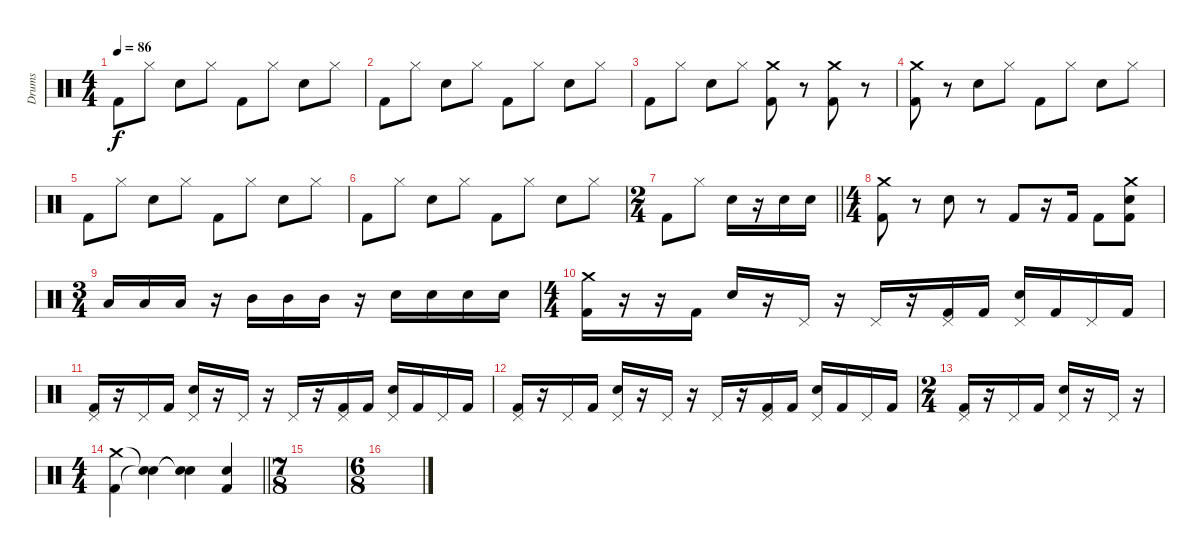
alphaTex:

\track ("Drums" "Drums") {instrument percussion}
\staff {score}
\articulation defaults
\ts (4 4)
\tempo 86
\clef neutral
\ks c "Kick (hit) 2".8{dy f} "Hi-Hat (closed)".8 "Snare (hit) 2".8 "Hi-Hat (closed)".8 "Kick (hit) 2".8 "Hi-Hat (closed)".8 "Snare (hit) 2".8 "Hi-Hat (closed)".8
|
"Kick (hit) 2".8 "Hi-Hat (closed)".8 "Snare (hit) 2".8 "Hi-Hat (closed)".8 "Kick (hit) 2".8 "Hi-Hat (closed)".8 "Snare (hit) 2".8 "Hi-Hat (closed)".8 |
"Kick (hit) 2".8 "Hi-Hat (closed)".8 "Snare (hit) 2".8 "Hi-Hat (closed)".8 ("Crash medium (hit)" "Kick (hit) 2").8 r.8 ("Crash medium (hit)" "Kick (hit) 2").8 r.8 |
("Crash medium (hit)" "Kick (hit) 2").8 r.8 "Snare (hit) 2".8 "Hi-Hat (closed)".8 "Kick (hit) 2".8 "Hi-Hat (closed)".8 "Snare (hit) 2".8 "Hi-Hat (closed)".8 |
"Kick (hit) 2".8 "Hi-Hat (closed)".8 "Snare (hit) 2".8 "Hi-Hat (closed)".8 "Kick (hit) 2".8 "Hi-Hat (closed)".8 "Snare (hit) 2".8 "Hi-Hat (closed)".8 |
"Kick (hit) 2".8 "Hi-Hat (closed)".8 "Snare (hit) 2".8 "Hi-Hat (closed)".8 "Kick (hit) 2".8 "Hi-Hat (closed)".8 "Snare (hit) 2".8 "Hi-Hat (closed)".8 |
\ts (2 4)
\barLineRight lightlight "Kick (hit) 2".8 "Hi-Hat (closed)".8 "Snare (hit) 2".16
r.16 "Snare (hit) 2".16 "Snare (hit) 2".16 |
\ts (4 4)
("Crash medium (hit)" "Kick (hit) 2").8 r.8 "Snare (hit) 2".8 r.8 "Kick (hit) 2".8 r.16 "Kick (hit) 2".16 "Kick (hit) 2".8 ("Crash medium (hit)" "Snare (hit) 2" "Kick (hit) 2").8 |
\ts (3 4)
"Low Tom (hit)".16 "Low Tom (hit)".16 "Low Tom (hit)".16 r.16 "Mid Tom (hit)".16 "Mid Tom (hit)".16 "Mid Tom (hit)".16 r.16 "Snare (hit) 2".16 "Snare (hit) 2".16 "Snare (hit) 2".16 "Snare (hit) 2".16 |
\ts (4 4)
("Crash medium (hit)" "Kick (hit) 2").16 r.16 r.16 "Kick (hit) 2".16 "Snare (hit) 2".16 r.16 "Pedal Hi-Hat (hit)".16 r.16 "Pedal Hi-Hat (hit)".16 r.16 ("Pedal Hi-Hat (hit)" "Kick (hit) 2").16 "Kick (hit) 2".16 ("Pedal Hi-Hat (hit)" "Snare (hit) 2").16 "Kick (hit) 2".16 "Pedal Hi-Hat (hit)".16 "Kick (hit) 2".16 |
("Pedal Hi-Hat (hit)" "Kick (hit) 2").16 r.16 "Pedal Hi-Hat (hit)".16 "Kick (hit) 2".16 ("Pedal Hi-Hat (hit)" "Snare (hit) 2").16 r.16 "Pedal Hi-Hat (hit)".16 r.16 "Pedal Hi-Hat (hit)".16 r.16 ("Pedal Hi-Hat (hit)" "Kick (hit) 2").16 "Kick (hit) 2".16 ("Pedal Hi-Hat (hit)" "Snare (hit) 2").16 "Kick (hit) 2".16 "Pedal Hi-Hat (hit)".16 "Kick (hit) 2".16 |
("Pedal Hi-Hat (hit)" "Kick (hit) 2").16 r.16 "Pedal Hi-Hat (hit)".16 "Kick (hit) 2".16 ("Pedal Hi-Hat (hit)" "Snare (hit) 2").16 r.16 "Pedal Hi-Hat (hit)".16 r.16 "Pedal Hi-Hat (hit)".16 r.16 ("Pedal Hi-Hat (hit)" "Kick (hit) 2").16 "Kick (hit) 2".16 ("Pedal Hi-Hat (hit)" "Snare (hit) 2").16 "Kick (hit) 2".16 "Pedal Hi-Hat (hit)".16 "Kick (hit) 2".16 |
\ts (2 4)
("Pedal Hi-Hat (hit)" "Kick (hit) 2").16 r.16 "Pedal Hi-Hat (hit)".16 "Kick (hit) 2".16 ("Pedal Hi-Hat (hit)" "Snare (hit) 2").16 r.16 "Pedal Hi-Hat (hit)".16 r.16 |
\ts (4 4)
\barLineRight lightlight
("Crash medium (hit)" "Kick (hit) 2").4 ("Snare (hit)"{t} "Snare (hit)"{t}).4 ("Snare (hit)"{t} "Snare (hit)"{t}).4 ("Snare (hit) 2" "Kick (hit) 2").4 |
\ts (7 8)
|
\ts (6 8)
